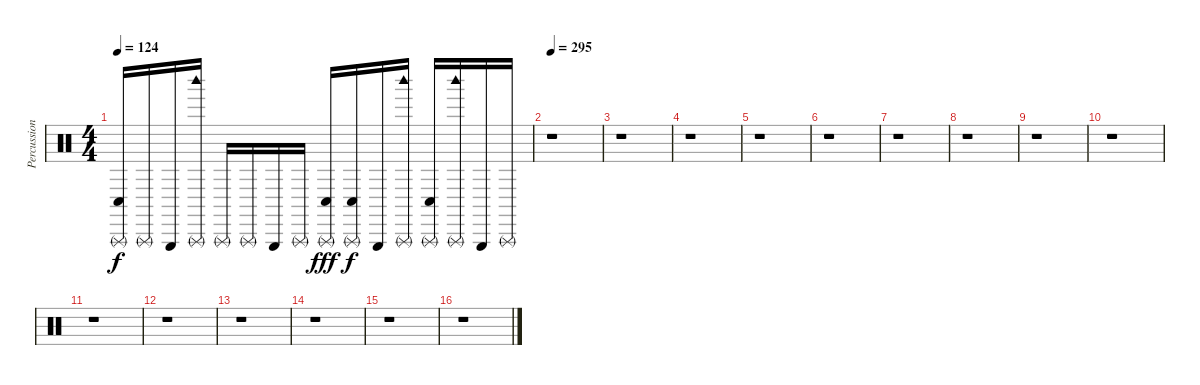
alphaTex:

\track ("Percussion" "Percussion") {instrument percussion}
\staff {score}
\articulation defaults
\ts (4 4)
\tempo 124
\clef neutral
\ks c
("Conga low (hit)" "Triangle (rnute)").16{dy f} "Triangle (rnute)".16 "Triangle (hit)".16 ("Woodblock high (hit)" "Triangle (rnute)").16 "Triangle (rnute)".16 "Triangle (rnute)".16 "Triangle (hit)".16 "Triangle (rnute)".16 ("Conga low (hit)" "Triangle (rnute)").16{dy fff} ("Conga low (hit)" "Triangle (rnute)").16{dy f} "Triangle (hit)".16 ("Woodblock high (hit)" "Triangle (rnute)").16 ("Conga low (hit)" "Triangle (rnute)").16 ("Woodblock high (hit)" "Triangle (rnute)").16 "Triangle (hit)".16 "Triangle (rnute)".16 |
\tempo 295
r.1 |
r.1 |
r.1 |
r.1 |
r.1 |
r.1 |
r.1 |
r.1 |
r.1 |
r.1 |
r.1 |
r.1 |
r.1 |
r.1 |
r.1
